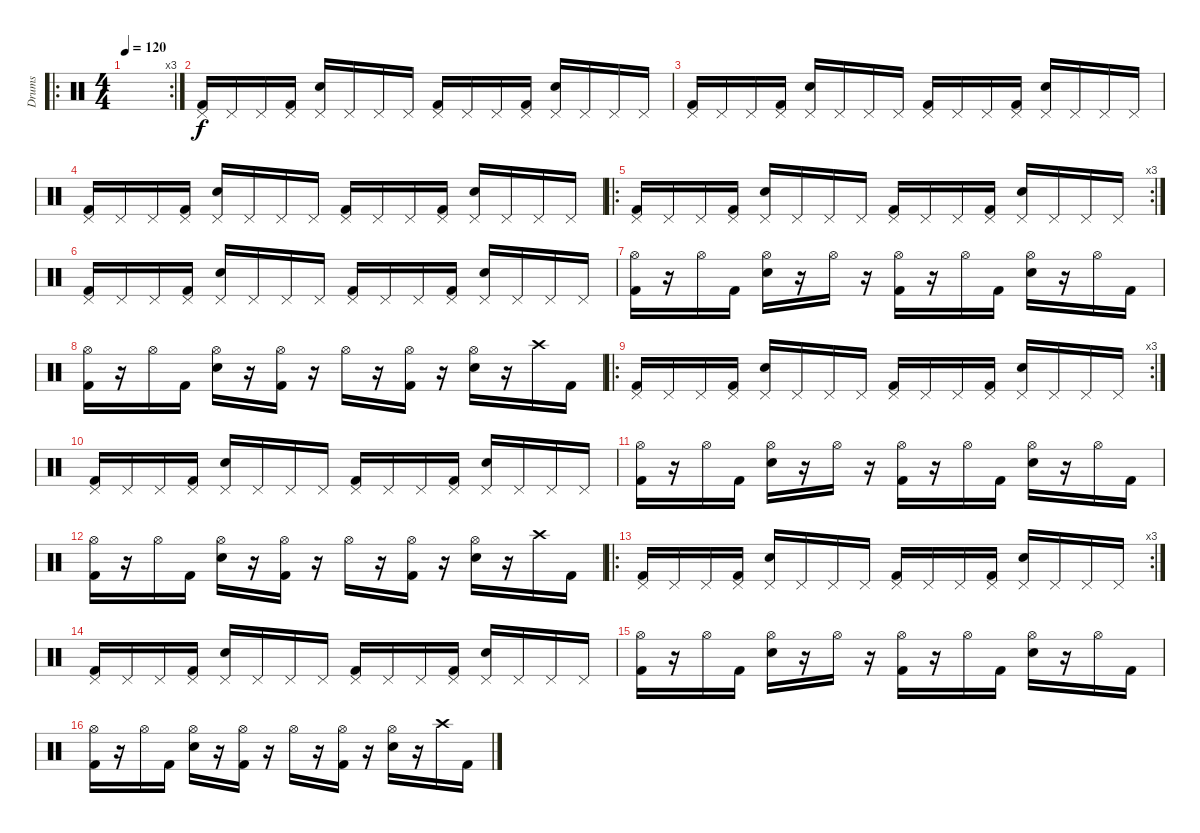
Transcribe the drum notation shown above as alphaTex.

\track ("Drums" "Drums") {instrument percussion}
\staff {score}
\articulation defaults
\ro
\rc 3
\ts (4 4)
\tempo 120
\tempo 90
\tempo 120
\clef neutral
\ks c
|
("Pedal Hi-Hat (hit)" "Kick (hit) 2").16{volume 6} "Pedal Hi-Hat (hit)".16 "Pedal Hi-Hat (hit)".16 ("Pedal Hi-Hat (hit)" "Kick (hit) 2").16 ("Pedal Hi-Hat (hit)" "Electric Snare (hit)").16 "Pedal Hi-Hat (hit)".16 "Pedal Hi-Hat (hit)".16 "Pedal Hi-Hat (hit)".16 ("Pedal Hi-Hat (hit)" "Kick (hit) 2").16 "Pedal Hi-Hat (hit)".16 "Pedal Hi-Hat (hit)".16 ("Pedal Hi-Hat (hit)" "Kick (hit) 2").16 ("Pedal Hi-Hat (hit)" "Electric Snare (hit)").16 "Pedal Hi-Hat (hit)".16 "Pedal Hi-Hat (hit)".16 "Pedal Hi-Hat (hit)".16 |
("Pedal Hi-Hat (hit)" "Kick (hit) 2").16{volume 10} "Pedal Hi-Hat (hit)".16 "Pedal Hi-Hat (hit)".16 ("Pedal Hi-Hat (hit)" "Kick (hit) 2").16 ("Pedal Hi-Hat (hit)" "Electric Snare (hit)").16 "Pedal Hi-Hat (hit)".16 "Pedal Hi-Hat (hit)".16 "Pedal Hi-Hat (hit)".16 ("Pedal Hi-Hat (hit)" "Kick (hit) 2").16 "Pedal Hi-Hat (hit)".16 "Pedal Hi-Hat (hit)".16 ("Pedal Hi-Hat (hit)" "Kick (hit) 2").16 ("Pedal Hi-Hat (hit)" "Electric Snare (hit)").16 "Pedal Hi-Hat (hit)".16 "Pedal Hi-Hat (hit)".16 "Pedal Hi-Hat (hit)".16 |
("Pedal Hi-Hat (hit)" "Kick (hit) 2").16{volume 12} "Pedal Hi-Hat (hit)".16 "Pedal Hi-Hat (hit)".16 ("Pedal Hi-Hat (hit)" "Kick (hit) 2").16 ("Pedal Hi-Hat (hit)" "Electric Snare (hit)").16 "Pedal Hi-Hat (hit)".16 "Pedal Hi-Hat (hit)".16 "Pedal Hi-Hat (hit)".16 ("Pedal Hi-Hat (hit)" "Kick (hit) 2").16 "Pedal Hi-Hat (hit)".16 "Pedal Hi-Hat (hit)".16 ("Pedal Hi-Hat (hit)" "Kick (hit) 2").16 ("Pedal Hi-Hat (hit)" "Electric Snare (hit)").16 "Pedal Hi-Hat (hit)".16 "Pedal Hi-Hat (hit)".16 "Pedal Hi-Hat (hit)".16 |
\ro
\rc 3
("Pedal Hi-Hat (hit)" "Kick (hit) 2").16{volume 13} "Pedal Hi-Hat (hit)".16 "Pedal Hi-Hat (hit)".16 ("Pedal Hi-Hat (hit)" "Kick (hit) 2").16 ("Pedal Hi-Hat (hit)" "Electric Snare (hit)").16 "Pedal Hi-Hat (hit)".16 "Pedal Hi-Hat (hit)".16 "Pedal Hi-Hat (hit)".16 ("Pedal Hi-Hat (hit)" "Kick (hit) 2").16 "Pedal Hi-Hat (hit)".16 "Pedal Hi-Hat (hit)".16 ("Pedal Hi-Hat (hit)" "Kick (hit) 2").16 ("Pedal Hi-Hat (hit)" "Electric Snare (hit)").16 "Pedal Hi-Hat (hit)".16 "Pedal Hi-Hat (hit)".16 "Pedal Hi-Hat (hit)".16 |
("Pedal Hi-Hat (hit)" "Kick (hit) 2").16 "Pedal Hi-Hat (hit)".16 "Pedal Hi-Hat (hit)".16 ("Pedal Hi-Hat (hit)" "Kick (hit) 2").16 ("Pedal Hi-Hat (hit)" "Electric Snare (hit)").16 "Pedal Hi-Hat (hit)".16 "Pedal Hi-Hat (hit)".16 "Pedal Hi-Hat (hit)".16 ("Pedal Hi-Hat (hit)" "Kick (hit) 2").16 "Pedal Hi-Hat (hit)".16 "Pedal Hi-Hat (hit)".16 ("Pedal Hi-Hat (hit)" "Kick (hit) 2").16 ("Pedal Hi-Hat (hit)" "Electric Snare (hit)").16 "Pedal Hi-Hat (hit)".16 "Pedal Hi-Hat (hit)".16 "Pedal Hi-Hat (hit)".16 |
("Hi-Hat (open)" "Kick (hit) 2").16 r.16 "Hi-Hat (open)".16 "Kick (hit) 2".16 ("Hi-Hat (open)" "Electric Snare (hit)").16 r.16 "Hi-Hat (open)".16 r.16 ("Hi-Hat (open)" "Kick (hit) 2").16 r.16 "Hi-Hat (open)".16 "Kick (hit) 2".16 ("Hi-Hat (open)" "Electric Snare (hit)").16 r.16 "Hi-Hat (open)".16 "Kick (hit) 2".16 |
("Hi-Hat (open)" "Kick (hit) 2").16 r.16 "Hi-Hat (open)".16 "Kick (hit) 2".16 ("Hi-Hat (open)" "Electric Snare (hit)").16 r.16 ("Hi-Hat (open)" "Kick (hit) 2").16 r.16 "Hi-Hat (open)".16 r.16 ("Hi-Hat (open)" "Kick (hit) 2").16 r.16 ("Hi-Hat (open)" "Electric Snare (hit)").16 r.16 "Crash high (hit)".16 "Kick (hit) 2".16 |
\ro
\rc 3
("Pedal Hi-Hat (hit)" "Kick (hit) 2").16{volume 16} "Pedal Hi-Hat (hit)".16 "Pedal Hi-Hat (hit)".16 ("Pedal Hi-Hat (hit)" "Kick (hit) 2").16 ("Pedal Hi-Hat (hit)" "Electric Snare (hit)").16 "Pedal Hi-Hat (hit)".16 "Pedal Hi-Hat (hit)".16 "Pedal Hi-Hat (hit)".16 ("Pedal Hi-Hat (hit)" "Kick (hit) 2").16 "Pedal Hi-Hat (hit)".16 "Pedal Hi-Hat (hit)".16 ("Pedal Hi-Hat (hit)" "Kick (hit) 2").16 ("Pedal Hi-Hat (hit)" "Electric Snare (hit)").16 "Pedal Hi-Hat (hit)".16 "Pedal Hi-Hat (hit)".16 "Pedal Hi-Hat (hit)".16 |
("Pedal Hi-Hat (hit)" "Kick (hit) 2").16 "Pedal Hi-Hat (hit)".16 "Pedal Hi-Hat (hit)".16 ("Pedal Hi-Hat (hit)" "Kick (hit) 2").16 ("Pedal Hi-Hat (hit)" "Electric Snare (hit)").16 "Pedal Hi-Hat (hit)".16 "Pedal Hi-Hat (hit)".16 "Pedal Hi-Hat (hit)".16 ("Pedal Hi-Hat (hit)" "Kick (hit) 2").16 "Pedal Hi-Hat (hit)".16 "Pedal Hi-Hat (hit)".16 ("Pedal Hi-Hat (hit)" "Kick (hit) 2").16 ("Pedal Hi-Hat (hit)" "Electric Snare (hit)").16 "Pedal Hi-Hat (hit)".16 "Pedal Hi-Hat (hit)".16 "Pedal Hi-Hat (hit)".16 |
("Hi-Hat (open)" "Kick (hit) 2").16 r.16 "Hi-Hat (open)".16 "Kick (hit) 2".16 ("Hi-Hat (open)" "Electric Snare (hit)").16 r.16 "Hi-Hat (open)".16 r.16 ("Hi-Hat (open)" "Kick (hit) 2").16 r.16 "Hi-Hat (open)".16 "Kick (hit) 2".16 ("Hi-Hat (open)" "Electric Snare (hit)").16 r.16 "Hi-Hat (open)".16 "Kick (hit) 2".16 |
("Hi-Hat (open)" "Kick (hit) 2").16 r.16 "Hi-Hat (open)".16 "Kick (hit) 2".16 ("Hi-Hat (open)" "Electric Snare (hit)").16 r.16 ("Hi-Hat (open)" "Kick (hit) 2").16 r.16 "Hi-Hat (open)".16 r.16 ("Hi-Hat (open)" "Kick (hit) 2").16 r.16 ("Hi-Hat (open)" "Electric Snare (hit)").16 r.16 "Crash high (hit)".16 "Kick (hit) 2".16 |
\ro
\rc 3
("Pedal Hi-Hat (hit)" "Kick (hit) 2").16{volume 16} "Pedal Hi-Hat (hit)".16 "Pedal Hi-Hat (hit)".16 ("Pedal Hi-Hat (hit)" "Kick (hit) 2").16 ("Pedal Hi-Hat (hit)" "Electric Snare (hit)").16 "Pedal Hi-Hat (hit)".16 "Pedal Hi-Hat (hit)".16 "Pedal Hi-Hat (hit)".16 ("Pedal Hi-Hat (hit)" "Kick (hit) 2").16 "Pedal Hi-Hat (hit)".16 "Pedal Hi-Hat (hit)".16 ("Pedal Hi-Hat (hit)" "Kick (hit) 2").16 ("Pedal Hi-Hat (hit)" "Electric Snare (hit)").16 "Pedal Hi-Hat (hit)".16 "Pedal Hi-Hat (hit)".16 "Pedal Hi-Hat (hit)".16 |
("Pedal Hi-Hat (hit)" "Kick (hit) 2").16 "Pedal Hi-Hat (hit)".16 "Pedal Hi-Hat (hit)".16 ("Pedal Hi-Hat (hit)" "Kick (hit) 2").16 ("Pedal Hi-Hat (hit)" "Electric Snare (hit)").16 "Pedal Hi-Hat (hit)".16 "Pedal Hi-Hat (hit)".16 "Pedal Hi-Hat (hit)".16 ("Pedal Hi-Hat (hit)" "Kick (hit) 2").16 "Pedal Hi-Hat (hit)".16 "Pedal Hi-Hat (hit)".16 ("Pedal Hi-Hat (hit)" "Kick (hit) 2").16 ("Pedal Hi-Hat (hit)" "Electric Snare (hit)").16 "Pedal Hi-Hat (hit)".16 "Pedal Hi-Hat (hit)".16 "Pedal Hi-Hat (hit)".16 |
("Hi-Hat (open)" "Kick (hit) 2").16 r.16 "Hi-Hat (open)".16 "Kick (hit) 2".16 ("Hi-Hat (open)" "Electric Snare (hit)").16 r.16 "Hi-Hat (open)".16 r.16 ("Hi-Hat (open)" "Kick (hit) 2").16 r.16 "Hi-Hat (open)".16 "Kick (hit) 2".16 ("Hi-Hat (open)" "Electric Snare (hit)").16 r.16 "Hi-Hat (open)".16 "Kick (hit) 2".16 |
("Hi-Hat (open)" "Kick (hit) 2").16 r.16 "Hi-Hat (open)".16 "Kick (hit) 2".16 ("Hi-Hat (open)" "Electric Snare (hit)").16 r.16 ("Hi-Hat (open)" "Kick (hit) 2").16 r.16 "Hi-Hat (open)".16 r.16 ("Hi-Hat (open)" "Kick (hit) 2").16 r.16 ("Hi-Hat (open)" "Electric Snare (hit)").16 r.16 "Crash high (hit)".16 "Kick (hit) 2".16
